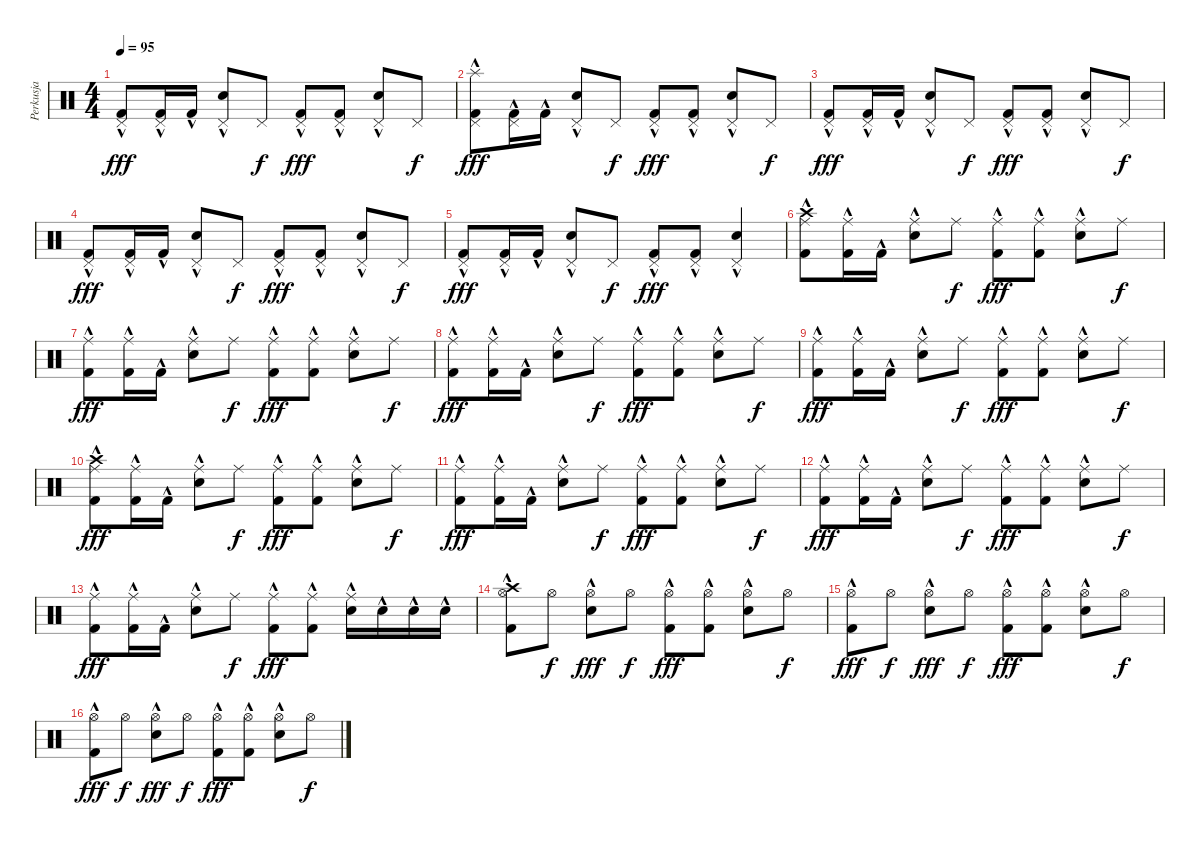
\track ("Perkusja" "Perkusja") {instrument percussion}
\staff {score}
\articulation defaults
\ts (4 4)
\tempo 95
\clef neutral
\ks c
("Pedal Hi-Hat (hit)" "Kick (hit) 2"{hac}).8{dy fff} ("Pedal Hi-Hat (hit)" "Kick (hit) 2"{hac}).16 "Kick (hit) 2"{hac}.16 ("Pedal Hi-Hat (hit)" "Electric Snare (hit)"{hac}).8 "Pedal Hi-Hat (hit)".8{dy f} ("Pedal Hi-Hat (hit)" "Kick (hit) 2"{hac}).8{dy fff} ("Pedal Hi-Hat (hit)" "Kick (hit) 2"{hac}).8 ("Pedal Hi-Hat (hit)" "Electric Snare (hit)"{hac}).8 "Pedal Hi-Hat (hit)".8{dy f} |
("Splash (hit)" "Pedal Hi-Hat (hit)" "Kick (hit) 2"{hac}).8{dy fff} ("Pedal Hi-Hat (hit)" "Kick (hit) 2"{hac}).16 "Kick (hit) 2"{hac}.16 ("Pedal Hi-Hat (hit)" "Electric Snare (hit)"{hac}).8 "Pedal Hi-Hat (hit)".8{dy f} ("Pedal Hi-Hat (hit)" "Kick (hit) 2"{hac}).8{dy fff} ("Pedal Hi-Hat (hit)" "Kick (hit) 2"{hac}).8 ("Pedal Hi-Hat (hit)" "Electric Snare (hit)"{hac}).8 "Pedal Hi-Hat (hit)".8{dy f} |
("Pedal Hi-Hat (hit)" "Kick (hit) 2"{hac}).8{dy fff} ("Pedal Hi-Hat (hit)" "Kick (hit) 2"{hac}).16 "Kick (hit) 2"{hac}.16 ("Pedal Hi-Hat (hit)" "Electric Snare (hit)"{hac}).8 "Pedal Hi-Hat (hit)".8{dy f} ("Pedal Hi-Hat (hit)" "Kick (hit) 2"{hac}).8{dy fff} ("Pedal Hi-Hat (hit)" "Kick (hit) 2"{hac}).8 ("Pedal Hi-Hat (hit)" "Electric Snare (hit)"{hac}).8 "Pedal Hi-Hat (hit)".8{dy f} |
("Pedal Hi-Hat (hit)" "Kick (hit) 2"{hac}).8{dy fff} ("Pedal Hi-Hat (hit)" "Kick (hit) 2"{hac}).16 "Kick (hit) 2"{hac}.16 ("Pedal Hi-Hat (hit)" "Electric Snare (hit)"{hac}).8 "Pedal Hi-Hat (hit)".8{dy f} ("Pedal Hi-Hat (hit)" "Kick (hit) 2"{hac}).8{dy fff} ("Pedal Hi-Hat (hit)" "Kick (hit) 2"{hac}).8 ("Pedal Hi-Hat (hit)" "Electric Snare (hit)"{hac}).8 "Pedal Hi-Hat (hit)".8{dy f} |
("Pedal Hi-Hat (hit)" "Kick (hit) 2"{hac}).8{dy fff} ("Pedal Hi-Hat (hit)" "Kick (hit) 2"{hac}).16 "Kick (hit) 2"{hac}.16 ("Pedal Hi-Hat (hit)" "Electric Snare (hit)"{hac}).8 "Pedal Hi-Hat (hit)".8{dy f} ("Pedal Hi-Hat (hit)" "Kick (hit) 2"{hac}).8{dy fff} ("Pedal Hi-Hat (hit)" "Kick (hit) 2"{hac}).8 ("Pedal Hi-Hat (hit)" "Electric Snare (hit)"{hac}).4 |
("Crash high (hit)" "Ride (middle)" "Kick (hit) 2"{hac}).8 ("Ride (middle)" "Kick (hit) 2"{hac}).16 "Kick (hit) 2"{hac}.16 ("Ride (middle)" "Electric Snare (hit)"{hac}).8 "Ride (middle)".8{dy f} ("Ride (middle)" "Kick (hit) 2"{hac}).8{dy fff} ("Ride (middle)" "Kick (hit) 2"{hac}).8 ("Ride (middle)" "Electric Snare (hit)"{hac}).8 "Ride (middle)".8{dy f} |
("Ride (middle)" "Kick (hit) 2"{hac}).8{dy fff} ("Ride (middle)" "Kick (hit) 2"{hac}).16 "Kick (hit) 2"{hac}.16 ("Ride (middle)" "Electric Snare (hit)"{hac}).8 "Ride (middle)".8{dy f} ("Ride (middle)" "Kick (hit) 2"{hac}).8{dy fff} ("Ride (middle)" "Kick (hit) 2"{hac}).8 ("Ride (middle)" "Electric Snare (hit)"{hac}).8 "Ride (middle)".8{dy f} |
("Ride (middle)" "Kick (hit) 2"{hac}).8{dy fff} ("Ride (middle)" "Kick (hit) 2"{hac}).16 "Kick (hit) 2"{hac}.16 ("Ride (middle)" "Electric Snare (hit)"{hac}).8 "Ride (middle)".8{dy f} ("Ride (middle)" "Kick (hit) 2"{hac}).8{dy fff} ("Ride (middle)" "Kick (hit) 2"{hac}).8 ("Ride (middle)" "Electric Snare (hit)"{hac}).8 "Ride (middle)".8{dy f} |
("Ride (middle)" "Kick (hit) 2"{hac}).8{dy fff} ("Ride (middle)" "Kick (hit) 2"{hac}).16 "Kick (hit) 2"{hac}.16 ("Ride (middle)" "Electric Snare (hit)"{hac}).8 "Ride (middle)".8{dy f} ("Ride (middle)" "Kick (hit) 2"{hac}).8{dy fff} ("Ride (middle)" "Kick (hit) 2"{hac}).8 ("Ride (middle)" "Electric Snare (hit)"{hac}).8 "Ride (middle)".8{dy f} |
("Crash high (hit)" "Ride (middle)" "Kick (hit) 2"{hac}).8{dy fff} ("Ride (middle)" "Kick (hit) 2"{hac}).16 "Kick (hit) 2"{hac}.16 ("Ride (middle)" "Electric Snare (hit)"{hac}).8 "Ride (middle)".8{dy f} ("Ride (middle)" "Kick (hit) 2"{hac}).8{dy fff} ("Ride (middle)" "Kick (hit) 2"{hac}).8 ("Ride (middle)" "Electric Snare (hit)"{hac}).8 "Ride (middle)".8{dy f} |
("Ride (middle)" "Kick (hit) 2"{hac}).8{dy fff} ("Ride (middle)" "Kick (hit) 2"{hac}).16 "Kick (hit) 2"{hac}.16 ("Ride (middle)" "Electric Snare (hit)"{hac}).8 "Ride (middle)".8{dy f} ("Ride (middle)" "Kick (hit) 2"{hac}).8{dy fff} ("Ride (middle)" "Kick (hit) 2"{hac}).8 ("Ride (middle)" "Electric Snare (hit)"{hac}).8 "Ride (middle)".8{dy f} |
("Ride (middle)" "Kick (hit) 2"{hac}).8{dy fff} ("Ride (middle)" "Kick (hit) 2"{hac}).16 "Kick (hit) 2"{hac}.16 ("Ride (middle)" "Electric Snare (hit)"{hac}).8 "Ride (middle)".8{dy f} ("Ride (middle)" "Kick (hit) 2"{hac}).8{dy fff} ("Ride (middle)" "Kick (hit) 2"{hac}).8 ("Ride (middle)" "Electric Snare (hit)"{hac}).8 "Ride (middle)".8{dy f} |
("Ride (middle)" "Kick (hit) 2"{hac}).8{dy fff} ("Ride (middle)" "Kick (hit) 2"{hac}).16 "Kick (hit) 2"{hac}.16 ("Ride (middle)" "Electric Snare (hit)"{hac}).8 "Ride (middle)".8{dy f} ("Ride (middle)" "Kick (hit) 2"{hac}).8{dy fff} ("Ride (middle)" "Kick (hit) 2"{hac}).8 ("Ride (middle)" "Electric Snare (hit)"{hac}).16 "Electric Snare (hit)"{hac}.16 "Electric Snare (hit)"{hac}.16 "Electric Snare (hit)"{hac}.16 |
("Crash high (hit)" "Hi-Hat (open)" "Kick (hit) 2"{hac}).8 "Hi-Hat (open)".8{dy f} ("Hi-Hat (open)" "Electric Snare (hit)"{hac}).8{dy fff} "Hi-Hat (open)".8{dy f} ("Hi-Hat (open)" "Kick (hit) 2"{hac}).8{dy fff} ("Hi-Hat (open)" "Kick (hit) 2"{hac}).8 ("Hi-Hat (open)" "Electric Snare (hit)"{hac}).8 "Hi-Hat (open)".8{dy f} |
("Hi-Hat (open)" "Kick (hit) 2"{hac}).8{dy fff} "Hi-Hat (open)".8{dy f} ("Hi-Hat (open)" "Electric Snare (hit)"{hac}).8{dy fff} "Hi-Hat (open)".8{dy f} ("Hi-Hat (open)" "Kick (hit) 2"{hac}).8{dy fff} ("Hi-Hat (open)" "Kick (hit) 2"{hac}).8 ("Hi-Hat (open)" "Electric Snare (hit)"{hac}).8 "Hi-Hat (open)".8{dy f} |
("Hi-Hat (open)" "Kick (hit) 2"{hac}).8{dy fff} "Hi-Hat (open)".8{dy f} ("Hi-Hat (open)" "Electric Snare (hit)"{hac}).8{dy fff} "Hi-Hat (open)".8{dy f} ("Hi-Hat (open)" "Kick (hit) 2"{hac}).8{dy fff} ("Hi-Hat (open)" "Kick (hit) 2"{hac}).8 ("Hi-Hat (open)" "Electric Snare (hit)"{hac}).8 "Hi-Hat (open)".8{dy f}
